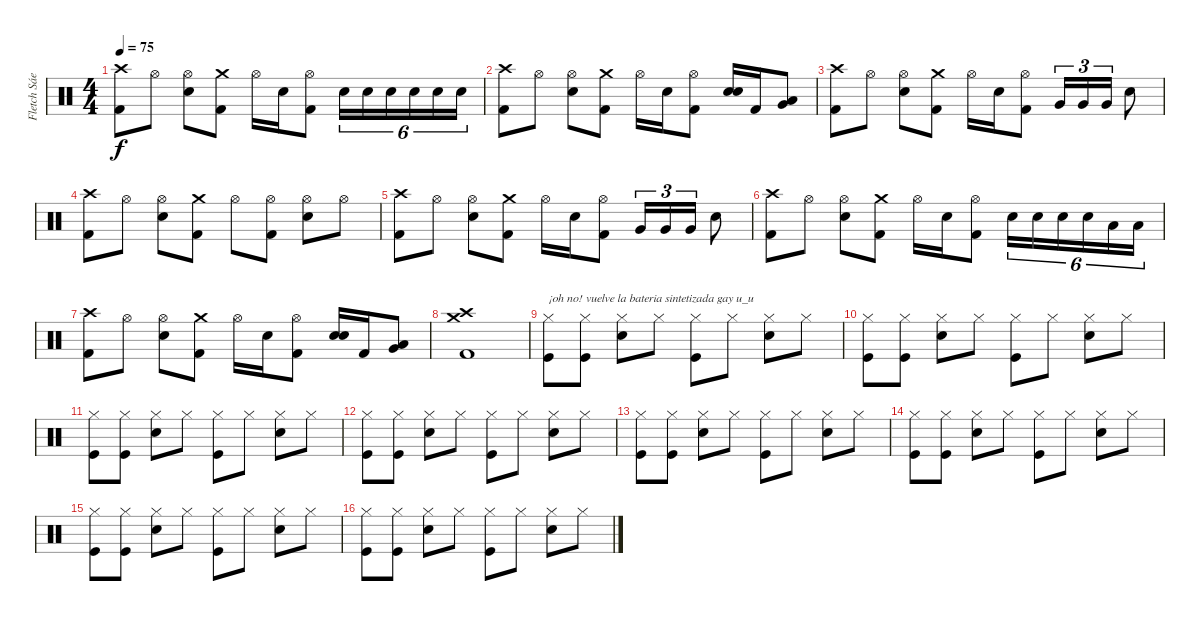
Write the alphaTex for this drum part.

\track ("Fletch Sáenz" "Fletch Sáe") {instrument percussion}
\staff {score}
\articulation defaults
\ts (4 4)
\tempo 75
\clef neutral
\ks c
("Crash high (hit)" "Kick (hit) 2").8{dy f} "Hi-Hat (open)".8 ("Hi-Hat (open)" "Electric Snare (hit)").8 ("Crash medium (hit)" "Kick (hit) 2").8 "Hi-Hat (open)".16 "Electric Snare (hit)".16 ("Hi-Hat (open)" "Kick (hit) 2").8 "Electric Snare (hit)".16{tu (6 4)} "Electric Snare (hit)".16{tu (6 4)} "Electric Snare (hit)".16{tu (6 4)} "Electric Snare (hit)".16{tu (6 4)} "Electric Snare (hit)".16{tu (6 4)} "Electric Snare (hit)".16{tu (6 4)} |
("Crash high (hit)" "Kick (hit) 2").8 "Hi-Hat (open)".8 ("Hi-Hat (open)" "Electric Snare (hit)").8 ("Crash medium (hit)" "Kick (hit) 2").8 "Hi-Hat (open)".16 "Electric Snare (hit)".16 ("Hi-Hat (open)" "Kick (hit) 2").8 ("Electric Snare (hit)" "Electric Snare (hit)").16 "Kick (hit) 2".16 ("Low Tom (hit)" "Very Low Tom (hit)").8 |
("Crash high (hit)" "Kick (hit) 2").8 "Hi-Hat (open)".8 ("Hi-Hat (open)" "Electric Snare (hit)").8 ("Crash medium (hit)" "Kick (hit) 2").8 "Hi-Hat (open)".16 "Electric Snare (hit)".16 ("Hi-Hat (open)" "Kick (hit) 2").8 "Very Low Tom (hit)".16{tu (3 2)} "Very Low Tom (hit)".16{tu (3 2)} "Very Low Tom (hit)".16{tu (3 2)} "Electric Snare (hit)".8 |
("Crash high (hit)" "Kick (hit) 2").8 "Hi-Hat (open)".8 ("Hi-Hat (open)" "Electric Snare (hit)").8 ("Crash medium (hit)" "Kick (hit) 2").8 "Hi-Hat (open)".8 ("Hi-Hat (open)" "Kick (hit) 2").8 ("Hi-Hat (open)" "Electric Snare (hit)").8 "Hi-Hat (open)".8 |
("Crash high (hit)" "Kick (hit) 2").8 "Hi-Hat (open)".8 ("Hi-Hat (open)" "Electric Snare (hit)").8 ("Crash medium (hit)" "Kick (hit) 2").8 "Hi-Hat (open)".16 "Electric Snare (hit)".16 ("Hi-Hat (open)" "Kick (hit) 2").8 "Very Low Tom (hit)".16{tu (3 2)} "Very Low Tom (hit)".16{tu (3 2)} "Very Low Tom (hit)".16{tu (3 2)} "Electric Snare (hit)".8 |
("Crash high (hit)" "Kick (hit) 2").8 "Hi-Hat (open)".8 ("Hi-Hat (open)" "Electric Snare (hit)").8 ("Crash medium (hit)" "Kick (hit) 2").8 "Hi-Hat (open)".16 "Electric Snare (hit)".16 ("Hi-Hat (open)" "Kick (hit) 2").8 "Electric Snare (hit)".16{tu (6 4)} "Electric Snare (hit)".16{tu (6 4)} "Electric Snare (hit)".16{tu (6 4)} "Electric Snare (hit)".16{tu (6 4)} "Low Tom (hit)".16{tu (6 4)} "Low Tom (hit)".16{tu (6 4)} |
("Crash high (hit)" "Kick (hit) 2").8 "Hi-Hat (open)".8 ("Hi-Hat (open)" "Electric Snare (hit)").8 ("Crash medium (hit)" "Kick (hit) 2").8 "Hi-Hat (open)".16 "Electric Snare (hit)".16 ("Hi-Hat (open)" "Kick (hit) 2").8 ("Electric Snare (hit)" "Electric Snare (hit)").16 "Kick (hit) 2".16 ("Low Tom (hit)" "Very Low Tom (hit)").8 |
("Crash high (hit)" "Crash medium (hit)" "Kick (hit) 2").1 |
("Hi-Hat (closed)" "Kick (hit)").8{txt "¡oh no! vuelve la bateria sintetizada gay u_u"} ("Hi-Hat (closed)" "Kick (hit)").8 ("Hi-Hat (closed)" "Snare (hit) 2").8 "Hi-Hat (closed)".8 ("Hi-Hat (closed)" "Kick (hit)").8 "Hi-Hat (closed)".8 ("Hi-Hat (closed)" "Snare (hit) 2").8 "Hi-Hat (closed)".8 |
("Hi-Hat (closed)" "Kick (hit)").8 ("Hi-Hat (closed)" "Kick (hit)").8 ("Hi-Hat (closed)" "Snare (hit) 2").8 "Hi-Hat (closed)".8 ("Hi-Hat (closed)" "Kick (hit)").8 "Hi-Hat (closed)".8 ("Hi-Hat (closed)" "Snare (hit) 2").8 "Hi-Hat (closed)".8 |
("Hi-Hat (closed)" "Kick (hit)").8 ("Hi-Hat (closed)" "Kick (hit)").8 ("Hi-Hat (closed)" "Snare (hit) 2").8 "Hi-Hat (closed)".8 ("Hi-Hat (closed)" "Kick (hit)").8 "Hi-Hat (closed)".8 ("Hi-Hat (closed)" "Snare (hit) 2").8 "Hi-Hat (closed)".8 |
("Hi-Hat (closed)" "Kick (hit)").8 ("Hi-Hat (closed)" "Kick (hit)").8 ("Hi-Hat (closed)" "Snare (hit) 2").8 "Hi-Hat (closed)".8 ("Hi-Hat (closed)" "Kick (hit)").8 "Hi-Hat (closed)".8 ("Hi-Hat (closed)" "Snare (hit) 2").8 "Hi-Hat (closed)".8 |
("Hi-Hat (closed)" "Kick (hit)").8 ("Hi-Hat (closed)" "Kick (hit)").8 ("Hi-Hat (closed)" "Snare (hit) 2").8 "Hi-Hat (closed)".8 ("Hi-Hat (closed)" "Kick (hit)").8 "Hi-Hat (closed)".8 ("Hi-Hat (closed)" "Snare (hit) 2").8 "Hi-Hat (closed)".8 |
("Hi-Hat (closed)" "Kick (hit)").8 ("Hi-Hat (closed)" "Kick (hit)").8 ("Hi-Hat (closed)" "Snare (hit) 2").8 "Hi-Hat (closed)".8 ("Hi-Hat (closed)" "Kick (hit)").8 "Hi-Hat (closed)".8 ("Hi-Hat (closed)" "Snare (hit) 2").8 "Hi-Hat (closed)".8 |
("Hi-Hat (closed)" "Kick (hit)").8 ("Hi-Hat (closed)" "Kick (hit)").8 ("Hi-Hat (closed)" "Snare (hit) 2").8 "Hi-Hat (closed)".8 ("Hi-Hat (closed)" "Kick (hit)").8 "Hi-Hat (closed)".8 ("Hi-Hat (closed)" "Snare (hit) 2").8 "Hi-Hat (closed)".8 |
("Hi-Hat (closed)" "Kick (hit)").8 ("Hi-Hat (closed)" "Kick (hit)").8 ("Hi-Hat (closed)" "Snare (hit) 2").8 "Hi-Hat (closed)".8 ("Hi-Hat (closed)" "Kick (hit)").8 "Hi-Hat (closed)".8 ("Hi-Hat (closed)" "Snare (hit) 2").8 "Hi-Hat (closed)".8
